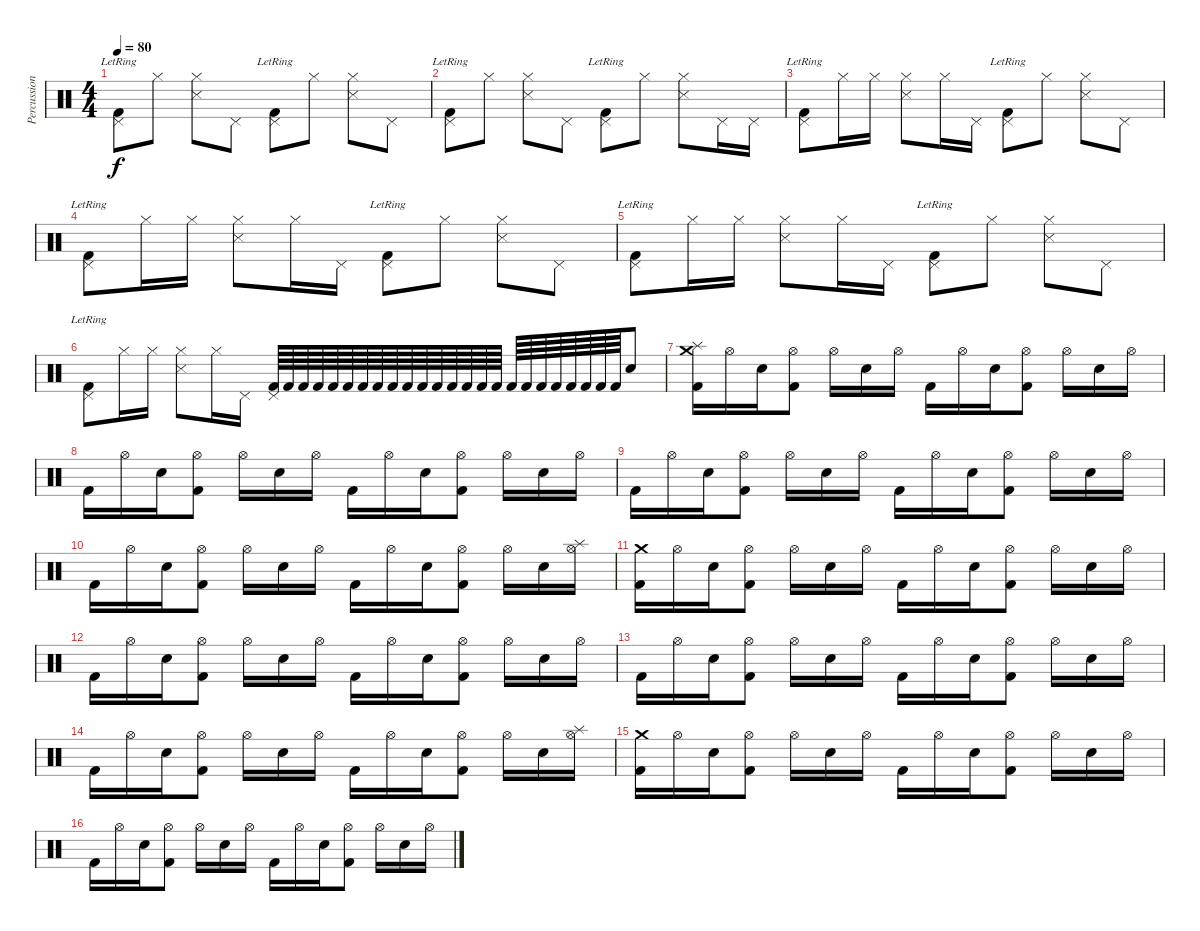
\track ("Percussions / Batterie" "Percussion") {instrument percussion}
\staff {score}
\articulation defaults
\ts (4 4)
\tempo 80
\clef neutral
\ks c
("Pedal Hi-Hat (hit)" "Kick (hit) 2"{lr}).8{dy f} "Hi-Hat (closed)".8 ("Hi-Hat (closed)" "Snare (side stick) 3").8 "Pedal Hi-Hat (hit)".8 ("Pedal Hi-Hat (hit)" "Kick (hit) 2"{lr}).8 "Hi-Hat (closed)".8 ("Hi-Hat (closed)" "Snare (side stick) 3").8 "Pedal Hi-Hat (hit)".8 |
("Pedal Hi-Hat (hit)" "Kick (hit) 2"{lr}).8 "Hi-Hat (closed)".8 ("Hi-Hat (closed)" "Snare (side stick) 3").8 "Pedal Hi-Hat (hit)".8 ("Pedal Hi-Hat (hit)" "Kick (hit) 2"{lr}).8 "Hi-Hat (closed)".8 ("Hi-Hat (closed)" "Snare (side stick) 3").8 "Pedal Hi-Hat (hit)".16 "Pedal Hi-Hat (hit)".16 |
("Pedal Hi-Hat (hit)" "Kick (hit) 2"{lr}).8 "Hi-Hat (closed)".16 "Hi-Hat (closed)".16 ("Hi-Hat (closed)" "Snare (side stick) 3").8 "Hi-Hat (closed)".16 "Pedal Hi-Hat (hit)".16 ("Pedal Hi-Hat (hit)" "Kick (hit) 2"{lr}).8 "Hi-Hat (closed)".8 ("Hi-Hat (closed)" "Snare (side stick) 3").8 "Pedal Hi-Hat (hit)".8 |
("Pedal Hi-Hat (hit)" "Kick (hit) 2"{lr}).8 "Hi-Hat (closed)".16 "Hi-Hat (closed)".16 ("Hi-Hat (closed)" "Snare (side stick) 3").8 "Hi-Hat (closed)".16 "Pedal Hi-Hat (hit)".16 ("Pedal Hi-Hat (hit)" "Kick (hit) 2"{lr}).8 "Hi-Hat (closed)".8 ("Hi-Hat (closed)" "Snare (side stick) 3").8 "Pedal Hi-Hat (hit)".8 |
("Pedal Hi-Hat (hit)" "Kick (hit) 2"{lr}).8 "Hi-Hat (closed)".16 "Hi-Hat (closed)".16 ("Hi-Hat (closed)" "Snare (side stick) 3").8 "Hi-Hat (closed)".16 "Pedal Hi-Hat (hit)".16 ("Pedal Hi-Hat (hit)" "Kick (hit) 2"{lr}).8 "Hi-Hat (closed)".8 ("Hi-Hat (closed)" "Snare (side stick) 3").8 "Pedal Hi-Hat (hit)".8 |
("Pedal Hi-Hat (hit)" "Kick (hit) 2"{lr}).8 "Hi-Hat (closed)".16 "Hi-Hat (closed)".16 ("Hi-Hat (closed)" "Snare (side stick) 3").8 "Hi-Hat (closed)".16 "Pedal Hi-Hat (hit)".16 ("Pedal Hi-Hat (hit)" "Kick (hit) 2").64 "Kick (hit) 2".64 "Kick (hit) 2".64 "Kick (hit) 2".64 "Kick (hit) 2".64 "Kick (hit) 2".64 "Kick (hit) 2".64 "Kick (hit) 2".64 "Kick (hit) 2".64 "Kick (hit) 2".64 "Kick (hit) 2".64 "Kick (hit) 2".64 "Kick (hit) 2".64 "Kick (hit) 2".64 "Kick (hit) 2".64 "Kick (hit) 2".64 "Kick (hit) 2".64 "Kick (hit) 2".64 "Kick (hit) 2".64 "Kick (hit) 2".64 "Kick (hit) 2".64 "Kick (hit) 2".64 "Kick (hit) 2".64 "Kick (hit) 2".64 "Electric Snare (hit)".8 |
("Splash (hit)" "Crash medium (hit)" "Kick (hit) 2").16 "Hi-Hat (open)".16 "Electric Snare (hit)".16 ("Hi-Hat (open)" "Kick (hit) 2").8 "Hi-Hat (open)".16 "Electric Snare (hit)".16 "Hi-Hat (open)".16 "Kick (hit) 2".16 "Hi-Hat (open)".16 "Electric Snare (hit)".16 ("Hi-Hat (open)" "Kick (hit) 2").8 "Hi-Hat (open)".16 "Electric Snare (hit)".16 "Hi-Hat (open)".16 |
"Kick (hit) 2".16 "Hi-Hat (open)".16 "Electric Snare (hit)".16 ("Hi-Hat (open)" "Kick (hit) 2").8 "Hi-Hat (open)".16 "Electric Snare (hit)".16 "Hi-Hat (open)".16 "Kick (hit) 2".16 "Hi-Hat (open)".16 "Electric Snare (hit)".16 ("Hi-Hat (open)" "Kick (hit) 2").8 "Hi-Hat (open)".16 "Electric Snare (hit)".16 "Hi-Hat (open)".16 |
"Kick (hit) 2".16 "Hi-Hat (open)".16 "Electric Snare (hit)".16 ("Hi-Hat (open)" "Kick (hit) 2").8 "Hi-Hat (open)".16 "Electric Snare (hit)".16 "Hi-Hat (open)".16 "Kick (hit) 2".16 "Hi-Hat (open)".16 "Electric Snare (hit)".16 ("Hi-Hat (open)" "Kick (hit) 2").8 "Hi-Hat (open)".16 "Electric Snare (hit)".16 "Hi-Hat (open)".16 |
"Kick (hit) 2".16 "Hi-Hat (open)".16 "Electric Snare (hit)".16 ("Hi-Hat (open)" "Kick (hit) 2").8 "Hi-Hat (open)".16 "Electric Snare (hit)".16 "Hi-Hat (open)".16 "Kick (hit) 2".16 "Hi-Hat (open)".16 "Electric Snare (hit)".16 ("Hi-Hat (open)" "Kick (hit) 2").8 "Hi-Hat (open)".16 "Electric Snare (hit)".16 ("Splash (hit)" "Hi-Hat (open)").16 |
("Crash medium (hit)" "Kick (hit) 2").16 "Hi-Hat (open)".16 "Electric Snare (hit)".16 ("Hi-Hat (open)" "Kick (hit) 2").8 "Hi-Hat (open)".16 "Electric Snare (hit)".16 "Hi-Hat (open)".16 "Kick (hit) 2".16 "Hi-Hat (open)".16 "Electric Snare (hit)".16 ("Hi-Hat (open)" "Kick (hit) 2").8 "Hi-Hat (open)".16 "Electric Snare (hit)".16 "Hi-Hat (open)".16 |
"Kick (hit) 2".16 "Hi-Hat (open)".16 "Electric Snare (hit)".16 ("Hi-Hat (open)" "Kick (hit) 2").8 "Hi-Hat (open)".16 "Electric Snare (hit)".16 "Hi-Hat (open)".16 "Kick (hit) 2".16 "Hi-Hat (open)".16 "Electric Snare (hit)".16 ("Hi-Hat (open)" "Kick (hit) 2").8 "Hi-Hat (open)".16 "Electric Snare (hit)".16 "Hi-Hat (open)".16 |
"Kick (hit) 2".16 "Hi-Hat (open)".16 "Electric Snare (hit)".16 ("Hi-Hat (open)" "Kick (hit) 2").8 "Hi-Hat (open)".16 "Electric Snare (hit)".16 "Hi-Hat (open)".16 "Kick (hit) 2".16 "Hi-Hat (open)".16 "Electric Snare (hit)".16 ("Hi-Hat (open)" "Kick (hit) 2").8 "Hi-Hat (open)".16 "Electric Snare (hit)".16 "Hi-Hat (open)".16 |
"Kick (hit) 2".16 "Hi-Hat (open)".16 "Electric Snare (hit)".16 ("Hi-Hat (open)" "Kick (hit) 2").8 "Hi-Hat (open)".16 "Electric Snare (hit)".16 "Hi-Hat (open)".16 "Kick (hit) 2".16 "Hi-Hat (open)".16 "Electric Snare (hit)".16 ("Hi-Hat (open)" "Kick (hit) 2").8 "Hi-Hat (open)".16 "Electric Snare (hit)".16 ("Splash (hit)" "Hi-Hat (open)").16 |
("Crash medium (hit)" "Kick (hit) 2").16 "Hi-Hat (open)".16 "Electric Snare (hit)".16 ("Hi-Hat (open)" "Kick (hit) 2").8 "Hi-Hat (open)".16 "Electric Snare (hit)".16 "Hi-Hat (open)".16 "Kick (hit) 2".16 "Hi-Hat (open)".16 "Electric Snare (hit)".16 ("Hi-Hat (open)" "Kick (hit) 2").8 "Hi-Hat (open)".16 "Electric Snare (hit)".16 "Hi-Hat (open)".16 |
"Kick (hit) 2".16 "Hi-Hat (open)".16 "Electric Snare (hit)".16 ("Hi-Hat (open)" "Kick (hit) 2").8 "Hi-Hat (open)".16 "Electric Snare (hit)".16 "Hi-Hat (open)".16 "Kick (hit) 2".16 "Hi-Hat (open)".16 "Electric Snare (hit)".16 ("Hi-Hat (open)" "Kick (hit) 2").8 "Hi-Hat (open)".16 "Electric Snare (hit)".16 "Hi-Hat (open)".16
